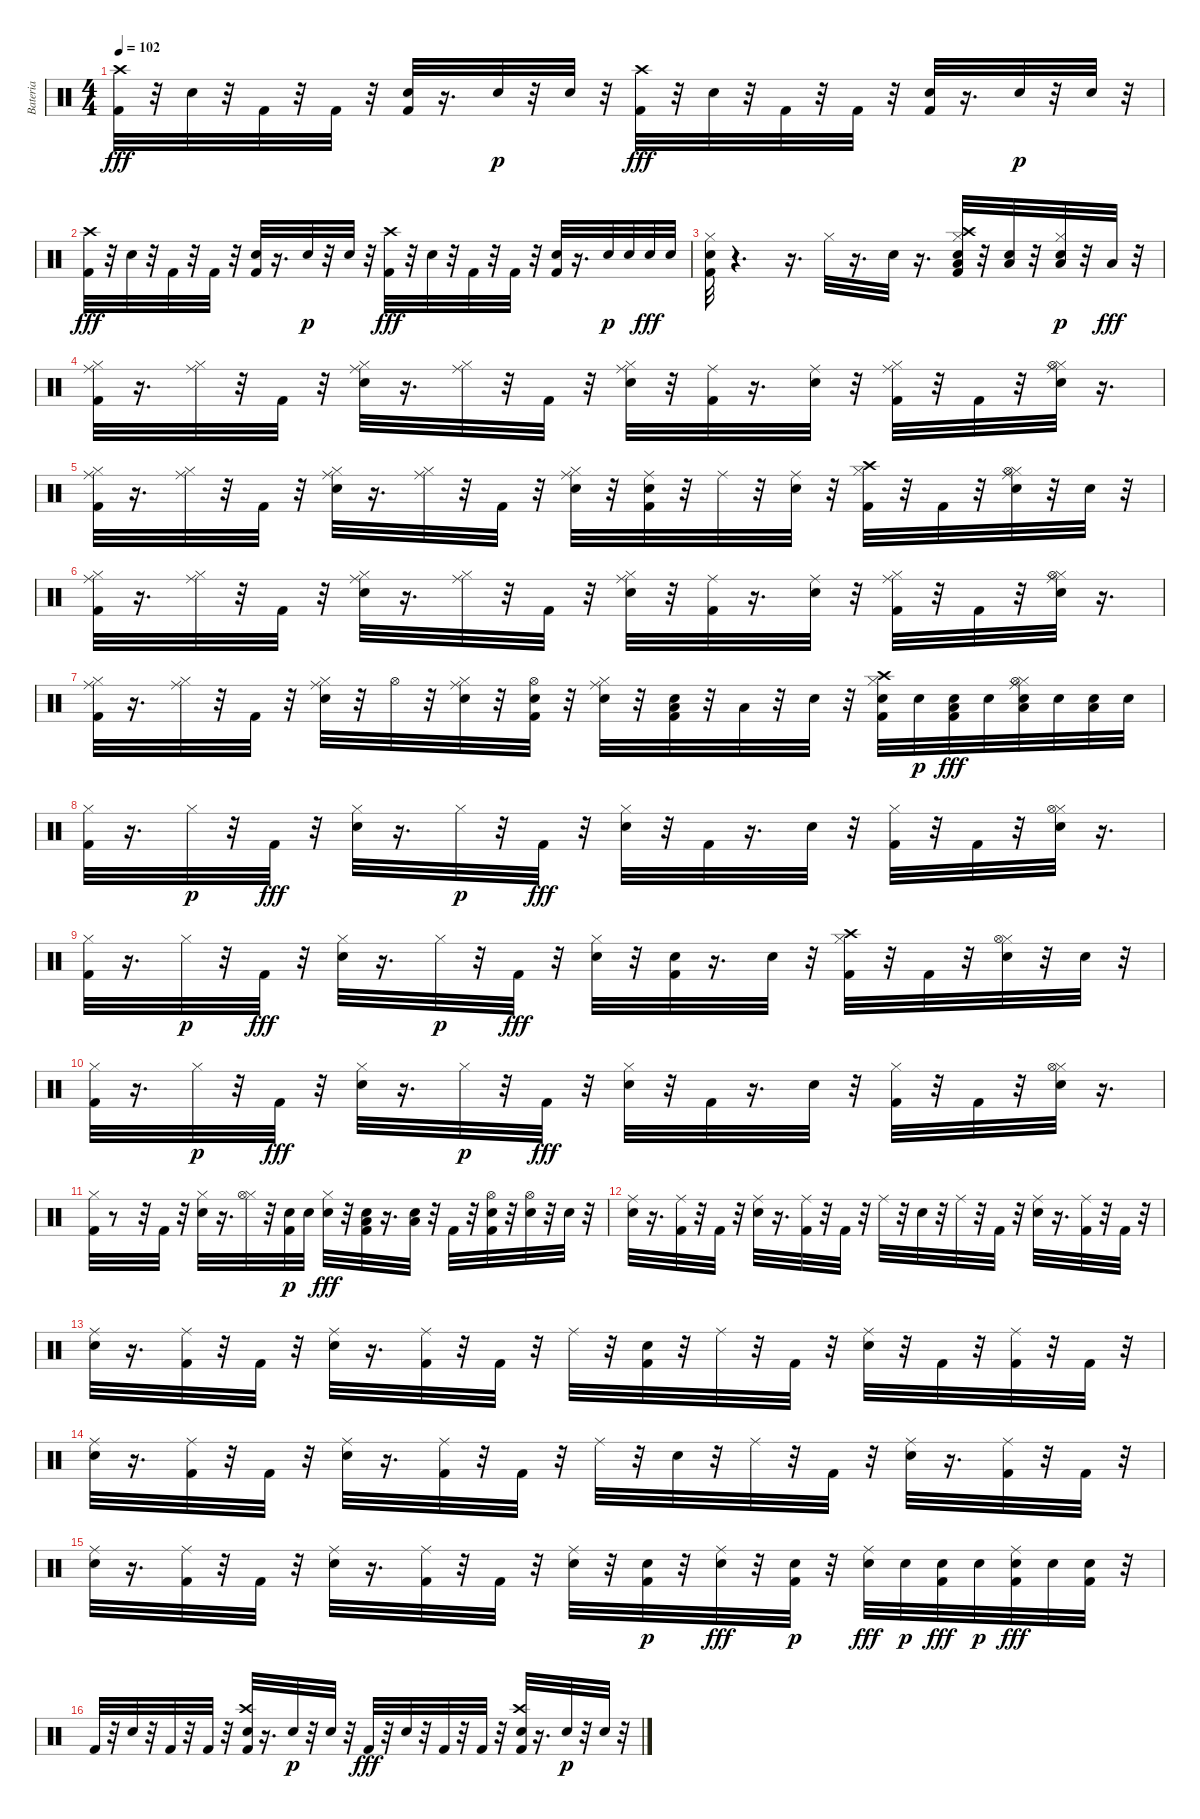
\track ("Bateria" "Bateria") {instrument percussion}
\staff {score}
\articulation defaults
\ts (4 4)
\tempo 102
\clef neutral
\ks c
("Kick (hit) 2" "Crash high (hit)").32{dy fff} r.32 "Snare (hit) 2".32 r.32 "Kick (hit) 2".32 r.32 "Kick (hit) 2".32 r.32 ("Kick (hit) 2" "Snare (hit) 2").32 r.16{d} "Snare (hit) 2".32{dy p} r.32 "Snare (hit) 2".32 r.32 ("Kick (hit) 2" "Crash high (hit)").32{dy fff} r.32 "Snare (hit) 2".32 r.32 "Kick (hit) 2".32 r.32 "Kick (hit) 2".32 r.32 ("Kick (hit) 2" "Snare (hit) 2").32 r.16{d} "Snare (hit) 2".32{dy p} r.32 "Snare (hit) 2".32 r.32 |
("Kick (hit) 2" "Crash high (hit)").32{dy fff} r.32 "Snare (hit) 2".32 r.32 "Kick (hit) 2".32 r.32 "Kick (hit) 2".32 r.32 ("Kick (hit) 2" "Snare (hit) 2").32 r.16{d} "Snare (hit) 2".32{dy p} r.32 "Snare (hit) 2".32 r.32 ("Kick (hit) 2" "Crash high (hit)").32{dy fff} r.32 "Snare (hit) 2".32 r.32 "Kick (hit) 2".32 r.32 "Kick (hit) 2".32 r.32 ("Kick (hit) 2" "Snare (hit) 2").32 r.16{d} "Snare (hit) 2".32{dy p} "Snare (hit) 2".32 "Snare (hit) 2".32{dy fff} "Snare (hit) 2".32 |
("Kick (hit) 2" "Snare (hit) 2" "Hi-Hat (closed)").32 r.4{d} r.16{d} "Hi-Hat (closed)".32 r.16{d} "Snare (hit) 2".32 r.16{d} ("Kick (hit) 2" "Snare (hit) 2" "Hi-Hat (closed)" "Low Tom (hit)" "Crash high (hit)").32 r.32 ("Snare (hit) 2" "Low Tom (hit)").32 r.32 ("Snare (hit) 2" "Low Floor Tom (hit)" "Hi-Hat (closed)").32{dy p} r.32 "Low Floor Tom (hit)".32{dy fff} r.32 |
("Kick (hit) 2" "Hi-Hat (closed)" "Ride (middle)").32 r.16{d} ("Hi-Hat (closed)" "Ride (middle)").32 r.32 "Kick (hit) 2".32 r.32 ("Snare (hit) 2" "Hi-Hat (closed)" "Ride (middle)").32 r.16{d} ("Hi-Hat (closed)" "Ride (middle)").32 r.32 "Kick (hit) 2".32 r.32 ("Snare (hit) 2" "Hi-Hat (closed)" "Ride (middle)").32 r.32 ("Kick (hit) 2" "Ride (middle)").32 r.16{d} ("Snare (hit) 2" "Ride (middle)").32 r.32 ("Kick (hit) 2" "Hi-Hat (closed)" "Ride (middle)").32 r.32 "Kick (hit) 2".32 r.32 ("Snare (hit) 2" "Hi-Hat (closed)" "Hi-Hat (open)" "Ride (middle)").32 r.16{d} |
("Kick (hit) 2" "Hi-Hat (closed)" "Ride (middle)").32 r.16{d} ("Hi-Hat (closed)" "Ride (middle)").32 r.32 "Kick (hit) 2".32 r.32 ("Snare (hit) 2" "Hi-Hat (closed)" "Ride (middle)").32 r.16{d} ("Hi-Hat (closed)" "Ride (middle)").32 r.32 "Kick (hit) 2".32 r.32 ("Snare (hit) 2" "Hi-Hat (closed)" "Ride (middle)").32 r.32 ("Kick (hit) 2" "Snare (hit) 2" "Ride (middle)").32 r.32 "Ride (middle)".32 r.32 ("Snare (hit) 2" "Ride (middle)").32 r.32 ("Kick (hit) 2" "Hi-Hat (closed)" "Crash high (hit)").32 r.32 "Kick (hit) 2".32 r.32 ("Snare (hit) 2" "Hi-Hat (closed)" "Hi-Hat (open)" "Ride (middle)").32 r.32 "Snare (hit) 2".32 r.32 |
("Kick (hit) 2" "Hi-Hat (closed)" "Ride (middle)").32 r.16{d} ("Hi-Hat (closed)" "Ride (middle)").32 r.32 "Kick (hit) 2".32 r.32 ("Snare (hit) 2" "Hi-Hat (closed)" "Ride (middle)").32 r.16{d} ("Hi-Hat (closed)" "Ride (middle)").32 r.32 "Kick (hit) 2".32 r.32 ("Snare (hit) 2" "Hi-Hat (closed)" "Ride (middle)").32 r.32 ("Kick (hit) 2" "Ride (middle)").32 r.16{d} ("Snare (hit) 2" "Ride (middle)").32 r.32 ("Kick (hit) 2" "Hi-Hat (closed)" "Ride (middle)").32 r.32 "Kick (hit) 2".32 r.32 ("Snare (hit) 2" "Hi-Hat (closed)" "Hi-Hat (open)" "Ride (middle)").32 r.16{d} |
("Kick (hit) 2" "Hi-Hat (closed)" "Ride (middle)").32 r.16{d} ("Hi-Hat (closed)" "Ride (middle)").32 r.32 "Kick (hit) 2".32 r.32 ("Snare (hit) 2" "Hi-Hat (closed)" "Ride (middle)").32 r.32 "Hi-Hat (open)".32 r.32 ("Snare (hit) 2" "Hi-Hat (closed)" "Ride (middle)").32 r.32 ("Kick (hit) 2" "Snare (hit) 2" "Hi-Hat (open)").32 r.32 ("Snare (hit) 2" "Hi-Hat (closed)" "Ride (middle)").32 r.32 ("Kick (hit) 2" "Snare (hit) 2" "Low Tom (hit)").32 r.32 "Low Floor Tom (hit)".32 r.32 "Snare (hit) 2".32 r.32 ("Kick (hit) 2" "Snare (hit) 2" "Hi-Hat (closed)" "Crash high (hit)").32 "Snare (hit) 2".32{dy p} ("Kick (hit) 2" "Snare (hit) 2" "Low Tom (hit)").32{dy fff} "Snare (hit) 2".32 ("Snare (hit) 2" "Low Floor Tom (hit)" "Hi-Hat (closed)" "Hi-Hat (open)" "Ride (middle)").32 "Snare (hit) 2".32 ("Snare (hit) 2" "Low Floor Tom (hit)").32 "Snare (hit) 2".32 |
("Kick (hit) 2" "Hi-Hat (closed)").32 r.16{d} "Hi-Hat (closed)".32{dy p} r.32 "Kick (hit) 2".32{dy fff} r.32 ("Snare (hit) 2" "Hi-Hat (closed)").32 r.16{d} "Hi-Hat (closed)".32{dy p} r.32 "Kick (hit) 2".32{dy fff} r.32 ("Snare (hit) 2" "Hi-Hat (closed)").32 r.32 "Kick (hit) 2".32 r.16{d} "Snare (hit) 2".32 r.32 ("Kick (hit) 2" "Hi-Hat (closed)").32 r.32 "Kick (hit) 2".32 r.32 ("Snare (hit) 2" "Hi-Hat (closed)" "Hi-Hat (open)").32 r.16{d} |
("Kick (hit) 2" "Hi-Hat (closed)").32 r.16{d} "Hi-Hat (closed)".32{dy p} r.32 "Kick (hit) 2".32{dy fff} r.32 ("Snare (hit) 2" "Hi-Hat (closed)").32 r.16{d} "Hi-Hat (closed)".32{dy p} r.32 "Kick (hit) 2".32{dy fff} r.32 ("Snare (hit) 2" "Hi-Hat (closed)").32 r.32 ("Kick (hit) 2" "Snare (hit) 2").32 r.16{d} "Snare (hit) 2".32 r.32 ("Kick (hit) 2" "Hi-Hat (closed)" "Crash high (hit)").32 r.32 "Kick (hit) 2".32 r.32 ("Snare (hit) 2" "Hi-Hat (closed)" "Hi-Hat (open)").32 r.32 "Snare (hit) 2".32 r.32 |
("Kick (hit) 2" "Hi-Hat (closed)").32 r.16{d} "Hi-Hat (closed)".32{dy p} r.32 "Kick (hit) 2".32{dy fff} r.32 ("Snare (hit) 2" "Hi-Hat (closed)").32 r.16{d} "Hi-Hat (closed)".32{dy p} r.32 "Kick (hit) 2".32{dy fff} r.32 ("Snare (hit) 2" "Hi-Hat (closed)").32 r.32 "Kick (hit) 2".32 r.16{d} "Snare (hit) 2".32 r.32 ("Kick (hit) 2" "Hi-Hat (closed)").32 r.32 "Kick (hit) 2".32 r.32 ("Snare (hit) 2" "Hi-Hat (closed)" "Hi-Hat (open)").32 r.16{d} |
("Kick (hit) 2" "Hi-Hat (closed)").32 r.8 r.32 "Kick (hit) 2".32 r.32 ("Snare (hit) 2" "Hi-Hat (closed)").32 r.16{d} ("Hi-Hat (closed)" "Hi-Hat (open)").32 r.32 ("Kick (hit) 2" "Snare (hit) 2").32{dy p} "Snare (hit) 2".32 ("Snare (hit) 2" "Hi-Hat (closed)").32{dy fff} r.32 ("Kick (hit) 2" "Snare (hit) 2" "Low Tom (hit)").32 r.16{d} ("Snare (hit) 2" "Low Floor Tom (hit)").32 r.32 "Kick (hit) 2".32 r.32 ("Kick (hit) 2" "Snare (hit) 2" "Hi-Hat (open)").32 r.32 ("Snare (hit) 2" "Hi-Hat (open)").32 r.32 "Snare (hit) 2".32 r.32 |
("Snare (hit) 2" "Ride (middle)").32 r.16{d} ("Kick (hit) 2" "Ride (middle)").32 r.32 "Kick (hit) 2".32 r.32 ("Snare (hit) 2" "Ride (middle)").32 r.16{d} ("Kick (hit) 2" "Ride (middle)").32 r.32 "Kick (hit) 2".32 r.32 "Ride (middle)".32 r.32 "Snare (hit) 2".32 r.32 "Ride (middle)".32 r.32 "Kick (hit) 2".32 r.32 ("Snare (hit) 2" "Ride (middle)").32 r.16{d} ("Kick (hit) 2" "Ride (middle)").32 r.32 "Kick (hit) 2".32 r.32 |
("Snare (hit) 2" "Ride (middle)").32 r.16{d} ("Kick (hit) 2" "Ride (middle)").32 r.32 "Kick (hit) 2".32 r.32 ("Snare (hit) 2" "Ride (middle)").32 r.16{d} ("Kick (hit) 2" "Ride (middle)").32 r.32 "Kick (hit) 2".32 r.32 "Ride (middle)".32 r.32 ("Kick (hit) 2" "Snare (hit) 2").32 r.32 "Ride (middle)".32 r.32 "Kick (hit) 2".32 r.32 ("Snare (hit) 2" "Ride (middle)").32 r.32 "Kick (hit) 2".32 r.32 ("Kick (hit) 2" "Ride (middle)").32 r.32 "Kick (hit) 2".32 r.32 |
("Snare (hit) 2" "Ride (middle)").32 r.16{d} ("Kick (hit) 2" "Ride (middle)").32 r.32 "Kick (hit) 2".32 r.32 ("Snare (hit) 2" "Ride (middle)").32 r.16{d} ("Kick (hit) 2" "Ride (middle)").32 r.32 "Kick (hit) 2".32 r.32 "Ride (middle)".32 r.32 "Snare (hit) 2".32 r.32 "Ride (middle)".32 r.32 "Kick (hit) 2".32 r.32 ("Snare (hit) 2" "Ride (middle)").32 r.16{d} ("Kick (hit) 2" "Ride (middle)").32 r.32 "Kick (hit) 2".32 r.32 |
("Snare (hit) 2" "Ride (middle)").32 r.16{d} ("Kick (hit) 2" "Ride (middle)").32 r.32 "Kick (hit) 2".32 r.32 ("Snare (hit) 2" "Ride (middle)").32 r.16{d} ("Kick (hit) 2" "Ride (middle)").32 r.32 "Kick (hit) 2".32 r.32 ("Snare (hit) 2" "Ride (middle)").32 r.32 ("Kick (hit) 2" "Snare (hit) 2").32{dy p} r.32 ("Snare (hit) 2" "Ride (middle)").32{dy fff} r.32 ("Kick (hit) 2" "Snare (hit) 2").32{dy p} r.32 ("Snare (hit) 2" "Ride (middle)").32{dy fff} "Snare (hit) 2".32{dy p} ("Kick (hit) 2" "Snare (hit) 2").32{dy fff} "Snare (hit) 2".32{dy p} ("Kick (hit) 2" "Snare (hit) 2" "Ride (middle)").32{dy fff} "Snare (hit) 2".32 ("Kick (hit) 2" "Snare (hit) 2").32 r.32 |
"Kick (hit) 2".32 r.32 "Snare (hit) 2".32 r.32 "Kick (hit) 2".32 r.32 "Kick (hit) 2".32 r.32 ("Kick (hit) 2" "Snare (hit) 2" "Crash high (hit)").32 r.16{d} "Snare (hit) 2".32{dy p} r.32 "Snare (hit) 2".32 r.32 "Kick (hit) 2".32{dy fff} r.32 "Snare (hit) 2".32 r.32 "Kick (hit) 2".32 r.32 "Kick (hit) 2".32 r.32 ("Kick (hit) 2" "Snare (hit) 2" "Crash high (hit)").32 r.16{d} "Snare (hit) 2".32{dy p} r.32 "Snare (hit) 2".32 r.32
